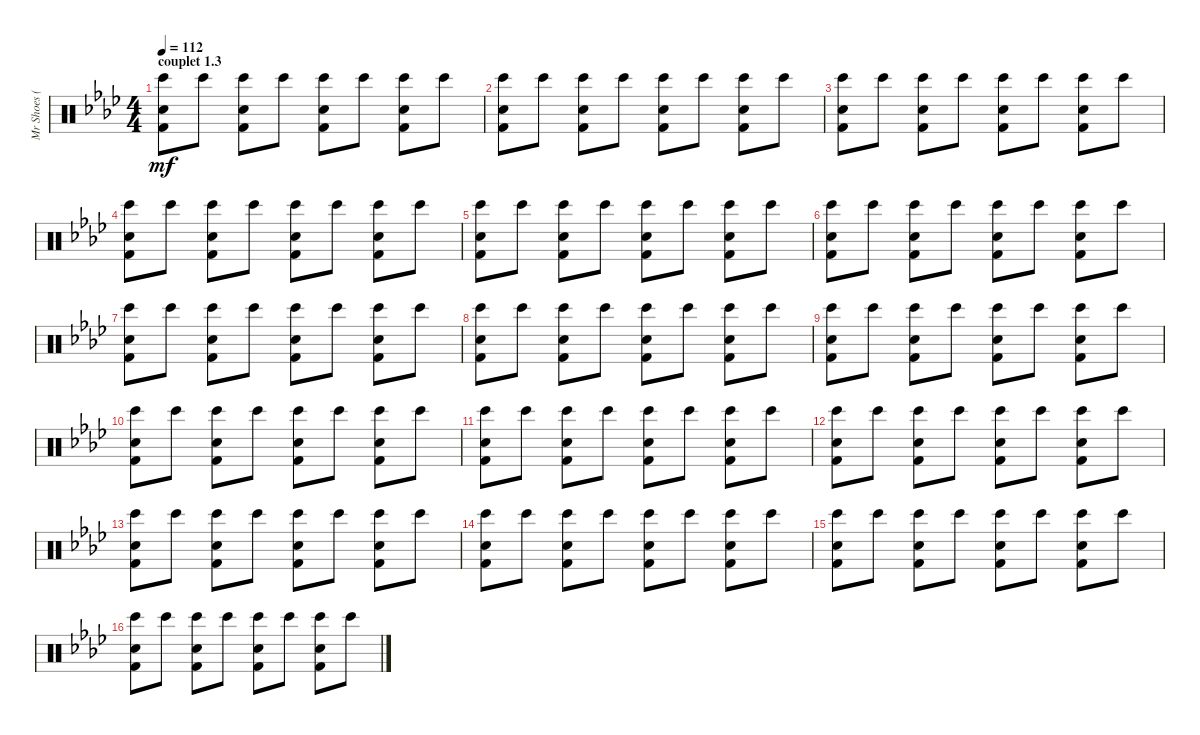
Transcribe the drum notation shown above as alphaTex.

\track ("Mr Shoes (batterie)" "Mr Shoes (") {instrument percussion}
\staff {score}
\articulation defaults
\ts (4 4)
\section ("" "couplet 1.3")
\tempo 112
\clef neutral
\ks ab
("Snare (hit) 2" "Kick (hit) 2" "Bongo High (hit)").8{dy mf} "Bongo High (hit)".8 ("Snare (hit) 2" "Kick (hit) 2" "Bongo High (hit)").8 "Bongo High (hit)".8 ("Snare (hit) 2" "Kick (hit) 2" "Bongo High (hit)").8 "Bongo High (hit)".8 ("Snare (hit) 2" "Kick (hit) 2" "Bongo High (hit)").8 "Bongo High (hit)".8 |
("Snare (hit) 2" "Kick (hit) 2" "Bongo High (hit)").8 "Bongo High (hit)".8 ("Snare (hit) 2" "Kick (hit) 2" "Bongo High (hit)").8 "Bongo High (hit)".8 ("Snare (hit) 2" "Kick (hit) 2" "Bongo High (hit)").8 "Bongo High (hit)".8 ("Snare (hit) 2" "Kick (hit) 2" "Bongo High (hit)").8 "Bongo High (hit)".8 |
("Snare (hit) 2" "Kick (hit) 2" "Bongo High (hit)").8 "Bongo High (hit)".8 ("Snare (hit) 2" "Kick (hit) 2" "Bongo High (hit)").8 "Bongo High (hit)".8 ("Snare (hit) 2" "Kick (hit) 2" "Bongo High (hit)").8 "Bongo High (hit)".8 ("Snare (hit) 2" "Kick (hit) 2" "Bongo High (hit)").8 "Bongo High (hit)".8 |
("Snare (hit) 2" "Kick (hit) 2" "Bongo High (hit)").8 "Bongo High (hit)".8 ("Snare (hit) 2" "Kick (hit) 2" "Bongo High (hit)").8 "Bongo High (hit)".8 ("Snare (hit) 2" "Kick (hit) 2" "Bongo High (hit)").8 "Bongo High (hit)".8 ("Snare (hit) 2" "Kick (hit) 2" "Bongo High (hit)").8 "Bongo High (hit)".8 |
("Snare (hit) 2" "Kick (hit) 2" "Bongo High (hit)").8 "Bongo High (hit)".8 ("Snare (hit) 2" "Kick (hit) 2" "Bongo High (hit)").8 "Bongo High (hit)".8 ("Snare (hit) 2" "Kick (hit) 2" "Bongo High (hit)").8 "Bongo High (hit)".8 ("Snare (hit) 2" "Kick (hit) 2" "Bongo High (hit)").8 "Bongo High (hit)".8 |
("Snare (hit) 2" "Kick (hit) 2" "Bongo High (hit)").8 "Bongo High (hit)".8 ("Snare (hit) 2" "Kick (hit) 2" "Bongo High (hit)").8 "Bongo High (hit)".8 ("Snare (hit) 2" "Kick (hit) 2" "Bongo High (hit)").8 "Bongo High (hit)".8 ("Snare (hit) 2" "Kick (hit) 2" "Bongo High (hit)").8 "Bongo High (hit)".8 |
("Snare (hit) 2" "Kick (hit) 2" "Bongo High (hit)").8 "Bongo High (hit)".8 ("Snare (hit) 2" "Kick (hit) 2" "Bongo High (hit)").8 "Bongo High (hit)".8 ("Snare (hit) 2" "Kick (hit) 2" "Bongo High (hit)").8 "Bongo High (hit)".8 ("Snare (hit) 2" "Kick (hit) 2" "Bongo High (hit)").8 "Bongo High (hit)".8 |
("Snare (hit) 2" "Kick (hit) 2" "Bongo High (hit)").8 "Bongo High (hit)".8 ("Snare (hit) 2" "Kick (hit) 2" "Bongo High (hit)").8 "Bongo High (hit)".8 ("Snare (hit) 2" "Kick (hit) 2" "Bongo High (hit)").8 "Bongo High (hit)".8 ("Snare (hit) 2" "Kick (hit) 2" "Bongo High (hit)").8 "Bongo High (hit)".8 |
("Snare (hit) 2" "Kick (hit) 2" "Bongo High (hit)").8 "Bongo High (hit)".8 ("Snare (hit) 2" "Kick (hit) 2" "Bongo High (hit)").8 "Bongo High (hit)".8 ("Snare (hit) 2" "Kick (hit) 2" "Bongo High (hit)").8 "Bongo High (hit)".8 ("Snare (hit) 2" "Kick (hit) 2" "Bongo High (hit)").8 "Bongo High (hit)".8 |
("Snare (hit) 2" "Kick (hit) 2" "Bongo High (hit)").8 "Bongo High (hit)".8 ("Snare (hit) 2" "Kick (hit) 2" "Bongo High (hit)").8 "Bongo High (hit)".8 ("Snare (hit) 2" "Kick (hit) 2" "Bongo High (hit)").8 "Bongo High (hit)".8 ("Snare (hit) 2" "Kick (hit) 2" "Bongo High (hit)").8 "Bongo High (hit)".8 |
("Snare (hit) 2" "Kick (hit) 2" "Bongo High (hit)").8 "Bongo High (hit)".8 ("Snare (hit) 2" "Kick (hit) 2" "Bongo High (hit)").8 "Bongo High (hit)".8 ("Snare (hit) 2" "Kick (hit) 2" "Bongo High (hit)").8 "Bongo High (hit)".8 ("Snare (hit) 2" "Kick (hit) 2" "Bongo High (hit)").8 "Bongo High (hit)".8 |
("Snare (hit) 2" "Kick (hit) 2" "Bongo High (hit)").8 "Bongo High (hit)".8 ("Snare (hit) 2" "Kick (hit) 2" "Bongo High (hit)").8 "Bongo High (hit)".8 ("Snare (hit) 2" "Kick (hit) 2" "Bongo High (hit)").8 "Bongo High (hit)".8 ("Snare (hit) 2" "Kick (hit) 2" "Bongo High (hit)").8 "Bongo High (hit)".8 |
("Snare (hit) 2" "Kick (hit) 2" "Bongo High (hit)").8 "Bongo High (hit)".8 ("Snare (hit) 2" "Kick (hit) 2" "Bongo High (hit)").8 "Bongo High (hit)".8 ("Snare (hit) 2" "Kick (hit) 2" "Bongo High (hit)").8 "Bongo High (hit)".8 ("Snare (hit) 2" "Kick (hit) 2" "Bongo High (hit)").8 "Bongo High (hit)".8 |
("Snare (hit) 2" "Kick (hit) 2" "Bongo High (hit)").8 "Bongo High (hit)".8 ("Snare (hit) 2" "Kick (hit) 2" "Bongo High (hit)").8 "Bongo High (hit)".8 ("Snare (hit) 2" "Kick (hit) 2" "Bongo High (hit)").8 "Bongo High (hit)".8 ("Snare (hit) 2" "Kick (hit) 2" "Bongo High (hit)").8 "Bongo High (hit)".8 |
("Snare (hit) 2" "Kick (hit) 2" "Bongo High (hit)").8 "Bongo High (hit)".8 ("Snare (hit) 2" "Kick (hit) 2" "Bongo High (hit)").8 "Bongo High (hit)".8 ("Snare (hit) 2" "Kick (hit) 2" "Bongo High (hit)").8 "Bongo High (hit)".8 ("Snare (hit) 2" "Kick (hit) 2" "Bongo High (hit)").8 "Bongo High (hit)".8 |
("Snare (hit) 2" "Kick (hit) 2" "Bongo High (hit)").8 "Bongo High (hit)".8 ("Snare (hit) 2" "Kick (hit) 2" "Bongo High (hit)").8 "Bongo High (hit)".8 ("Snare (hit) 2" "Kick (hit) 2" "Bongo High (hit)").8 "Bongo High (hit)".8 ("Snare (hit) 2" "Kick (hit) 2" "Bongo High (hit)").8 "Bongo High (hit)".8
